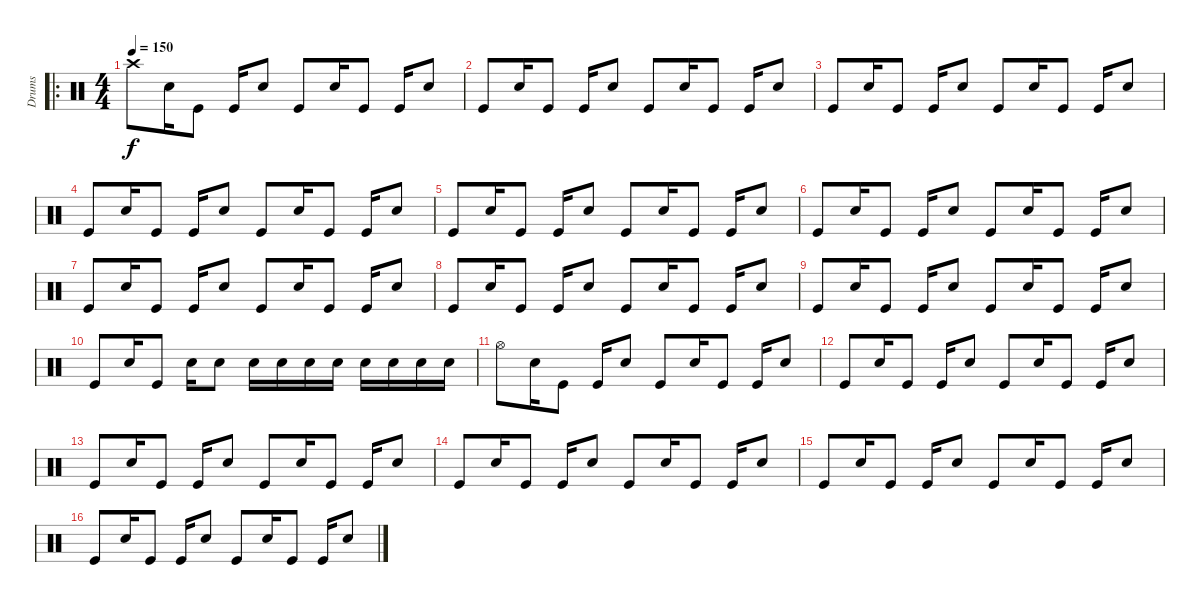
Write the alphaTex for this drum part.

\track ("Drums" "Drums") {instrument percussion}
\staff {score}
\articulation defaults
\ro
\ts (4 4)
\tempo 150
\clef neutral
\ks c "Crash high (hit)".8{dy f} "Electric Snare (hit)".16 "Kick (hit)".8 "Kick (hit)".16 "Electric Snare (hit)".8 "Kick (hit)".8 "Electric Snare (hit)".16 "Kick (hit)".8 "Kick (hit)".16 "Electric Snare (hit)".8
|
"Kick (hit)".8 "Electric Snare (hit)".16 "Kick (hit)".8 "Kick (hit)".16 "Electric Snare (hit)".8 "Kick (hit)".8 "Electric Snare (hit)".16 "Kick (hit)".8 "Kick (hit)".16 "Electric Snare (hit)".8 |
"Kick (hit)".8 "Electric Snare (hit)".16 "Kick (hit)".8 "Kick (hit)".16 "Electric Snare (hit)".8 "Kick (hit)".8 "Electric Snare (hit)".16 "Kick (hit)".8 "Kick (hit)".16 "Electric Snare (hit)".8 |
"Kick (hit)".8 "Electric Snare (hit)".16 "Kick (hit)".8 "Kick (hit)".16 "Electric Snare (hit)".8 "Kick (hit)".8 "Electric Snare (hit)".16 "Kick (hit)".8 "Kick (hit)".16 "Electric Snare (hit)".8 |
"Kick (hit)".8 "Electric Snare (hit)".16 "Kick (hit)".8 "Kick (hit)".16 "Electric Snare (hit)".8 "Kick (hit)".8 "Electric Snare (hit)".16 "Kick (hit)".8 "Kick (hit)".16 "Electric Snare (hit)".8 |
"Kick (hit)".8 "Electric Snare (hit)".16 "Kick (hit)".8 "Kick (hit)".16 "Electric Snare (hit)".8 "Kick (hit)".8 "Electric Snare (hit)".16 "Kick (hit)".8 "Kick (hit)".16 "Electric Snare (hit)".8 |
"Kick (hit)".8 "Electric Snare (hit)".16 "Kick (hit)".8 "Kick (hit)".16 "Electric Snare (hit)".8 "Kick (hit)".8 "Electric Snare (hit)".16 "Kick (hit)".8 "Kick (hit)".16 "Electric Snare (hit)".8 |
"Kick (hit)".8 "Electric Snare (hit)".16 "Kick (hit)".8 "Kick (hit)".16 "Electric Snare (hit)".8 "Kick (hit)".8 "Electric Snare (hit)".16 "Kick (hit)".8 "Kick (hit)".16 "Electric Snare (hit)".8 |
"Kick (hit)".8 "Electric Snare (hit)".16 "Kick (hit)".8 "Kick (hit)".16 "Electric Snare (hit)".8 "Kick (hit)".8 "Electric Snare (hit)".16 "Kick (hit)".8 "Kick (hit)".16 "Electric Snare (hit)".8 |
"Kick (hit)".8 "Electric Snare (hit)".16 "Kick (hit)".8 "Electric Snare (hit)".16 "Electric Snare (hit)".8 "Electric Snare (hit)".16 "Electric Snare (hit)".16 "Electric Snare (hit)".16 "Electric Snare (hit)".16 "Electric Snare (hit)".16 "Electric Snare (hit)".16 "Electric Snare (hit)".16 "Electric Snare (hit)".16 |
"Hi-Hat (open)".8 "Electric Snare (hit)".16 "Kick (hit)".8 "Kick (hit)".16 "Electric Snare (hit)".8 "Kick (hit)".8 "Electric Snare (hit)".16 "Kick (hit)".8 "Kick (hit)".16 "Electric Snare (hit)".8 |
"Kick (hit)".8 "Electric Snare (hit)".16 "Kick (hit)".8 "Kick (hit)".16 "Electric Snare (hit)".8 "Kick (hit)".8 "Electric Snare (hit)".16 "Kick (hit)".8 "Kick (hit)".16 "Electric Snare (hit)".8 |
"Kick (hit)".8 "Electric Snare (hit)".16 "Kick (hit)".8 "Kick (hit)".16 "Electric Snare (hit)".8 "Kick (hit)".8 "Electric Snare (hit)".16 "Kick (hit)".8 "Kick (hit)".16 "Electric Snare (hit)".8 |
"Kick (hit)".8 "Electric Snare (hit)".16 "Kick (hit)".8 "Kick (hit)".16 "Electric Snare (hit)".8 "Kick (hit)".8 "Electric Snare (hit)".16 "Kick (hit)".8 "Kick (hit)".16 "Electric Snare (hit)".8 |
"Kick (hit)".8 "Electric Snare (hit)".16 "Kick (hit)".8 "Kick (hit)".16 "Electric Snare (hit)".8 "Kick (hit)".8 "Electric Snare (hit)".16 "Kick (hit)".8 "Kick (hit)".16 "Electric Snare (hit)".8 |
"Kick (hit)".8 "Electric Snare (hit)".16 "Kick (hit)".8 "Kick (hit)".16 "Electric Snare (hit)".8 "Kick (hit)".8 "Electric Snare (hit)".16 "Kick (hit)".8 "Kick (hit)".16 "Electric Snare (hit)".8
